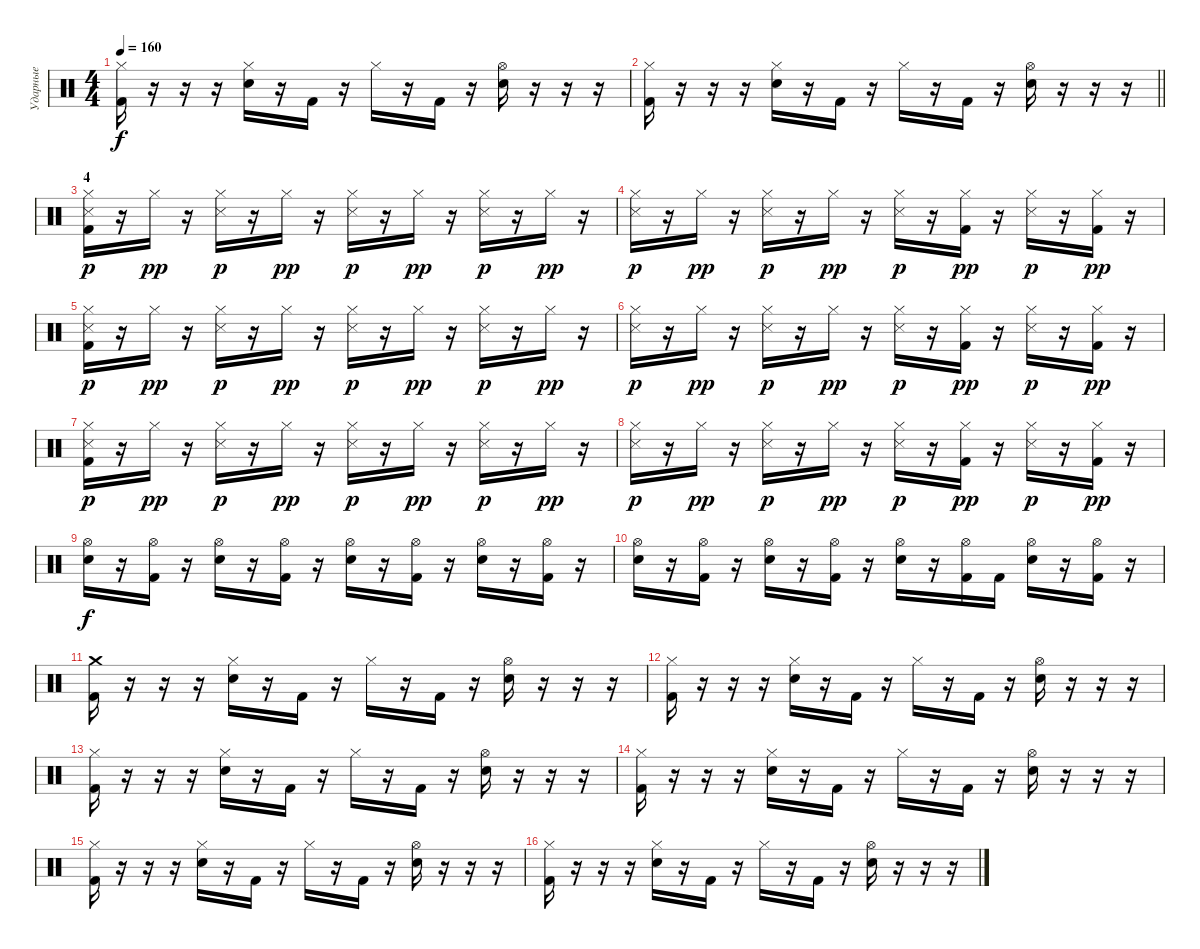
\track ("Ударные" "Ударные") {instrument percussion}
\staff {score}
\articulation defaults
\ts (4 4)
\tempo 160
\clef neutral
\ks c
("Hi-Hat (closed)" "Kick (hit) 2").16{dy f} r.16 r.16 r.16 ("Hi-Hat (closed)" "Electric Snare (hit)").16 r.16 "Kick (hit) 2".16 r.16 "Hi-Hat (closed)".16 r.16 "Kick (hit) 2".16 r.16 ("Hi-Hat (open)" "Electric Snare (hit)").16 r.16 r.16 r.16 |
\barLineRight lightlight
("Hi-Hat (closed)" "Kick (hit) 2").16 r.16 r.16 r.16 ("Hi-Hat (closed)" "Electric Snare (hit)").16 r.16 "Kick (hit) 2".16 r.16 "Hi-Hat (closed)".16 r.16 "Kick (hit) 2".16 r.16 ("Hi-Hat (open)" "Electric Snare (hit)").16 r.16 r.16 r.16 |
\section ("" "4")
("Hi-Hat (closed)" "Snare (side stick) 3" "Kick (hit) 2").16{dy p} r.16 "Hi-Hat (closed)".16{dy pp} r.16 ("Hi-Hat (closed)" "Snare (side stick) 3").16{dy p} r.16 "Hi-Hat (closed)".16{dy pp} r.16 ("Hi-Hat (closed)" "Snare (side stick) 3").16{dy p} r.16 "Hi-Hat (closed)".16{dy pp} r.16 ("Hi-Hat (closed)" "Snare (side stick) 3").16{dy p} r.16 "Hi-Hat (closed)".16{dy pp} r.16 |
("Hi-Hat (closed)" "Snare (side stick) 3").16{dy p} r.16 "Hi-Hat (closed)".16{dy pp} r.16 ("Hi-Hat (closed)" "Snare (side stick) 3").16{dy p} r.16 "Hi-Hat (closed)".16{dy pp} r.16 ("Hi-Hat (closed)" "Snare (side stick) 3").16{dy p} r.16 ("Hi-Hat (closed)" "Kick (hit) 2").16{dy pp} r.16 ("Hi-Hat (closed)" "Snare (side stick) 3").16{dy p} r.16 ("Hi-Hat (closed)" "Kick (hit) 2").16{dy pp} r.16 |
("Hi-Hat (closed)" "Snare (side stick) 3" "Kick (hit) 2").16{dy p} r.16 "Hi-Hat (closed)".16{dy pp} r.16 ("Hi-Hat (closed)" "Snare (side stick) 3").16{dy p} r.16 "Hi-Hat (closed)".16{dy pp} r.16 ("Hi-Hat (closed)" "Snare (side stick) 3").16{dy p} r.16 "Hi-Hat (closed)".16{dy pp} r.16 ("Hi-Hat (closed)" "Snare (side stick) 3").16{dy p} r.16 "Hi-Hat (closed)".16{dy pp} r.16 |
("Hi-Hat (closed)" "Snare (side stick) 3").16{dy p} r.16 "Hi-Hat (closed)".16{dy pp} r.16 ("Hi-Hat (closed)" "Snare (side stick) 3").16{dy p} r.16 "Hi-Hat (closed)".16{dy pp} r.16 ("Hi-Hat (closed)" "Snare (side stick) 3").16{dy p} r.16 ("Hi-Hat (closed)" "Kick (hit) 2").16{dy pp} r.16 ("Hi-Hat (closed)" "Snare (side stick) 3").16{dy p} r.16 ("Hi-Hat (closed)" "Kick (hit) 2").16{dy pp} r.16 |
("Hi-Hat (closed)" "Snare (side stick) 3" "Kick (hit) 2").16{dy p} r.16 "Hi-Hat (closed)".16{dy pp} r.16 ("Hi-Hat (closed)" "Snare (side stick) 3").16{dy p} r.16 "Hi-Hat (closed)".16{dy pp} r.16 ("Hi-Hat (closed)" "Snare (side stick) 3").16{dy p} r.16 "Hi-Hat (closed)".16{dy pp} r.16 ("Hi-Hat (closed)" "Snare (side stick) 3").16{dy p} r.16 "Hi-Hat (closed)".16{dy pp} r.16 |
("Hi-Hat (closed)" "Snare (side stick) 3").16{dy p} r.16 "Hi-Hat (closed)".16{dy pp} r.16 ("Hi-Hat (closed)" "Snare (side stick) 3").16{dy p} r.16 "Hi-Hat (closed)".16{dy pp} r.16 ("Hi-Hat (closed)" "Snare (side stick) 3").16{dy p} r.16 ("Hi-Hat (closed)" "Kick (hit) 2").16{dy pp} r.16 ("Hi-Hat (closed)" "Snare (side stick) 3").16{dy p} r.16 ("Hi-Hat (closed)" "Kick (hit) 2").16{dy pp} r.16 |
("Hi-Hat (open)" "Electric Snare (hit)").16{dy f} r.16 ("Hi-Hat (open)" "Kick (hit) 2").16 r.16 ("Hi-Hat (open)" "Electric Snare (hit)").16 r.16 ("Hi-Hat (open)" "Kick (hit) 2").16 r.16 ("Hi-Hat (open)" "Electric Snare (hit)").16 r.16 ("Hi-Hat (open)" "Kick (hit) 2").16 r.16 ("Hi-Hat (open)" "Electric Snare (hit)").16 r.16 ("Hi-Hat (open)" "Kick (hit) 2").16 r.16 |
("Hi-Hat (open)" "Electric Snare (hit)").16 r.16 ("Hi-Hat (open)" "Kick (hit) 2").16 r.16 ("Hi-Hat (open)" "Electric Snare (hit)").16 r.16 ("Hi-Hat (open)" "Kick (hit) 2").16 r.16 ("Hi-Hat (open)" "Electric Snare (hit)").16 r.16 ("Hi-Hat (open)" "Kick (hit) 2").16 "Kick (hit) 2".16 ("Hi-Hat (open)" "Electric Snare (hit)").16 r.16 ("Hi-Hat (open)" "Kick (hit) 2").16 r.16 |
("Crash medium (hit)" "Kick (hit) 2").16 r.16 r.16 r.16 ("Hi-Hat (closed)" "Electric Snare (hit)").16 r.16 "Kick (hit) 2".16 r.16 "Hi-Hat (closed)".16 r.16 "Kick (hit) 2".16 r.16 ("Hi-Hat (open)" "Electric Snare (hit)").16 r.16 r.16 r.16 |
("Hi-Hat (closed)" "Kick (hit) 2").16 r.16 r.16 r.16 ("Hi-Hat (closed)" "Electric Snare (hit)").16 r.16 "Kick (hit) 2".16 r.16 "Hi-Hat (closed)".16 r.16 "Kick (hit) 2".16 r.16 ("Hi-Hat (open)" "Electric Snare (hit)").16 r.16 r.16 r.16 |
("Hi-Hat (closed)" "Kick (hit) 2").16 r.16 r.16 r.16 ("Hi-Hat (closed)" "Electric Snare (hit)").16 r.16 "Kick (hit) 2".16 r.16 "Hi-Hat (closed)".16 r.16 "Kick (hit) 2".16 r.16 ("Hi-Hat (open)" "Electric Snare (hit)").16 r.16 r.16 r.16 |
("Hi-Hat (closed)" "Kick (hit) 2").16 r.16 r.16 r.16 ("Hi-Hat (closed)" "Electric Snare (hit)").16 r.16 "Kick (hit) 2".16 r.16 "Hi-Hat (closed)".16 r.16 "Kick (hit) 2".16 r.16 ("Hi-Hat (open)" "Electric Snare (hit)").16 r.16 r.16 r.16 |
("Hi-Hat (closed)" "Kick (hit) 2").16 r.16 r.16 r.16 ("Hi-Hat (closed)" "Electric Snare (hit)").16 r.16 "Kick (hit) 2".16 r.16 "Hi-Hat (closed)".16 r.16 "Kick (hit) 2".16 r.16 ("Hi-Hat (open)" "Electric Snare (hit)").16 r.16 r.16 r.16 |
("Hi-Hat (closed)" "Kick (hit) 2").16 r.16 r.16 r.16 ("Hi-Hat (closed)" "Electric Snare (hit)").16 r.16 "Kick (hit) 2".16 r.16 "Hi-Hat (closed)".16 r.16 "Kick (hit) 2".16 r.16 ("Hi-Hat (open)" "Electric Snare (hit)").16 r.16 r.16 r.16
